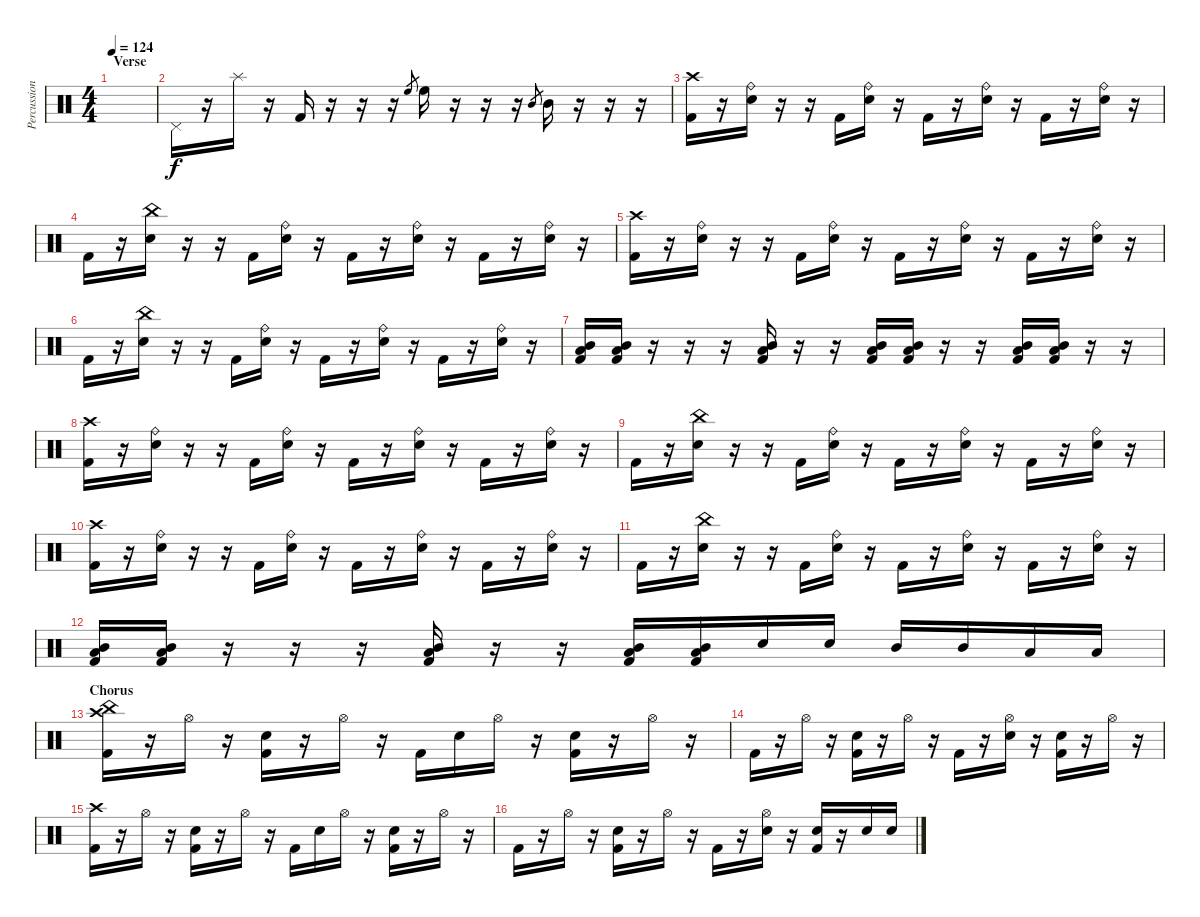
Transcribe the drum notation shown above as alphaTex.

\track ("Percussion" "Percussion") {instrument percussion}
\staff {score}
\articulation defaults
\ts (4 4)
\section ("" "Verse")
\tempo 124
\clef neutral
\ks c
|
"Pedal Hi-Hat (hit)".16 r.16 "Splash (hit)".16 r.16 "Kick (hit) 2".16 r.16 r.16 r.16 "High Floor Tom (hit)".8{gr} "High Floor Tom (hit)".16 r.16 r.16 r.16 "Mid Tom (hit)".8{gr} "Mid Tom (hit)".16 r.16 r.16 r.16 |
("Crash high (hit)" "Kick (hit) 2").16 r.16 ("Ride (bell)" "Snare (hit) 2").16 r.16 r.16 "Kick (hit) 2".16 ("Ride (bell)" "Snare (hit) 2").16 r.16 "Kick (hit) 2".16 r.16 ("Ride (bell)" "Snare (hit) 2").16 r.16 "Kick (hit) 2".16 r.16 ("Ride (bell)" "Snare (hit) 2").16 r.16 |
"Kick (hit) 2".16 r.16 ("China (hit)" "Snare (hit) 2").16 r.16 r.16 "Kick (hit) 2".16 ("Ride (bell)" "Snare (hit) 2").16 r.16 "Kick (hit) 2".16 r.16 ("Ride (bell)" "Snare (hit) 2").16 r.16 "Kick (hit) 2".16 r.16 ("Ride (bell)" "Snare (hit) 2").16 r.16 |
("Crash high (hit)" "Kick (hit) 2").16 r.16 ("Ride (bell)" "Snare (hit) 2").16 r.16 r.16 "Kick (hit) 2".16 ("Ride (bell)" "Snare (hit) 2").16 r.16 "Kick (hit) 2".16 r.16 ("Ride (bell)" "Snare (hit) 2").16 r.16 "Kick (hit) 2".16 r.16 ("Ride (bell)" "Snare (hit) 2").16 r.16 |
"Kick (hit) 2".16 r.16 ("China (hit)" "Snare (hit) 2").16 r.16 r.16 "Kick (hit) 2".16 ("Ride (bell)" "Snare (hit) 2").16 r.16 "Kick (hit) 2".16 r.16 ("Ride (bell)" "Snare (hit) 2").16 r.16 "Kick (hit) 2".16 r.16 ("Ride (bell)" "Snare (hit) 2").16 r.16 |
("Mid Tom (hit)" "Low Floor Tom (hit)" "Kick (hit) 2").16 ("Mid Tom (hit)" "Low Floor Tom (hit)" "Kick (hit) 2").16 r.16 r.16 r.16 ("Mid Tom (hit)" "Low Floor Tom (hit)" "Kick (hit) 2").16 r.16 r.16 ("Mid Tom (hit)" "Low Floor Tom (hit)" "Kick (hit) 2").16 ("Mid Tom (hit)" "Low Floor Tom (hit)" "Kick (hit) 2").16 r.16 r.16 ("Mid Tom (hit)" "Low Floor Tom (hit)" "Kick (hit) 2").16 ("Mid Tom (hit)" "Low Floor Tom (hit)" "Kick (hit) 2").16 r.16 r.16 |
("Crash high (hit)" "Kick (hit) 2").16 r.16 ("Ride (bell)" "Snare (hit) 2").16 r.16 r.16 "Kick (hit) 2".16 ("Ride (bell)" "Snare (hit) 2").16 r.16 "Kick (hit) 2".16 r.16 ("Ride (bell)" "Snare (hit) 2").16 r.16 "Kick (hit) 2".16 r.16 ("Ride (bell)" "Snare (hit) 2").16 r.16 |
"Kick (hit) 2".16 r.16 ("China (hit)" "Snare (hit) 2").16 r.16 r.16 "Kick (hit) 2".16 ("Ride (bell)" "Snare (hit) 2").16 r.16 "Kick (hit) 2".16 r.16 ("Ride (bell)" "Snare (hit) 2").16 r.16 "Kick (hit) 2".16 r.16 ("Ride (bell)" "Snare (hit) 2").16 r.16 |
("Crash high (hit)" "Kick (hit) 2").16 r.16 ("Ride (bell)" "Snare (hit) 2").16 r.16 r.16 "Kick (hit) 2".16 ("Ride (bell)" "Snare (hit) 2").16 r.16 "Kick (hit) 2".16 r.16 ("Ride (bell)" "Snare (hit) 2").16 r.16 "Kick (hit) 2".16 r.16 ("Ride (bell)" "Snare (hit) 2").16 r.16 |
"Kick (hit) 2".16 r.16 ("China (hit)" "Snare (hit) 2").16 r.16 r.16 "Kick (hit) 2".16 ("Ride (bell)" "Snare (hit) 2").16 r.16 "Kick (hit) 2".16 r.16 ("Ride (bell)" "Snare (hit) 2").16 r.16 "Kick (hit) 2".16 r.16 ("Ride (bell)" "Snare (hit) 2").16 r.16 |
("Mid Tom (hit)" "Low Floor Tom (hit)" "Kick (hit) 2").16 ("Mid Tom (hit)" "Low Floor Tom (hit)" "Kick (hit) 2").16 r.16 r.16 r.16 ("Mid Tom (hit)" "Low Floor Tom (hit)" "Kick (hit) 2").16 r.16 r.16 ("Mid Tom (hit)" "Low Floor Tom (hit)" "Kick (hit) 2").16 ("Mid Tom (hit)" "Low Floor Tom (hit)" "Kick (hit) 2").16 "Snare (hit) 2".16 "Snare (hit) 2".16 "Mid Tom (hit)".16 "Mid Tom (hit)".16 "Low Floor Tom (hit)".16 "Low Floor Tom (hit)".16 |
\section ("" "Chorus")
("Crash high (hit)" "China (hit)" "Kick (hit) 2").16 r.16 "Hi-Hat (open)".16 r.16 ("Snare (hit) 2" "Kick (hit) 2").16 r.16 "Hi-Hat (open)".16 r.16 "Kick (hit) 2".16 "Snare (hit) 2".16 "Hi-Hat (open)".16 r.16 ("Snare (hit) 2" "Kick (hit) 2").16 r.16 "Hi-Hat (open)".16 r.16 |
"Kick (hit) 2".16 r.16 "Hi-Hat (open)".16 r.16 ("Snare (hit) 2" "Kick (hit) 2").16 r.16 "Hi-Hat (open)".16 r.16 "Kick (hit) 2".16 r.16 ("Hi-Hat (open)" "Snare (hit) 2").16 r.16 ("Snare (hit) 2" "Kick (hit) 2").16 r.16 "Hi-Hat (open)".16 r.16 |
("Crash high (hit)" "Kick (hit) 2").16 r.16 "Hi-Hat (open)".16 r.16 ("Snare (hit) 2" "Kick (hit) 2").16 r.16 "Hi-Hat (open)".16 r.16 "Kick (hit) 2".16 "Snare (hit) 2".16 "Hi-Hat (open)".16 r.16 ("Snare (hit) 2" "Kick (hit) 2").16 r.16 "Hi-Hat (open)".16 r.16 |
"Kick (hit) 2".16 r.16 "Hi-Hat (open)".16 r.16 ("Snare (hit) 2" "Kick (hit) 2").16 r.16 "Hi-Hat (open)".16 r.16 "Kick (hit) 2".16 r.16 ("Hi-Hat (open)" "Snare (hit) 2").16 r.16 ("Snare (hit) 2" "Kick (hit) 2").16 r.16 "Snare (hit) 2".16 "Snare (hit) 2".16
